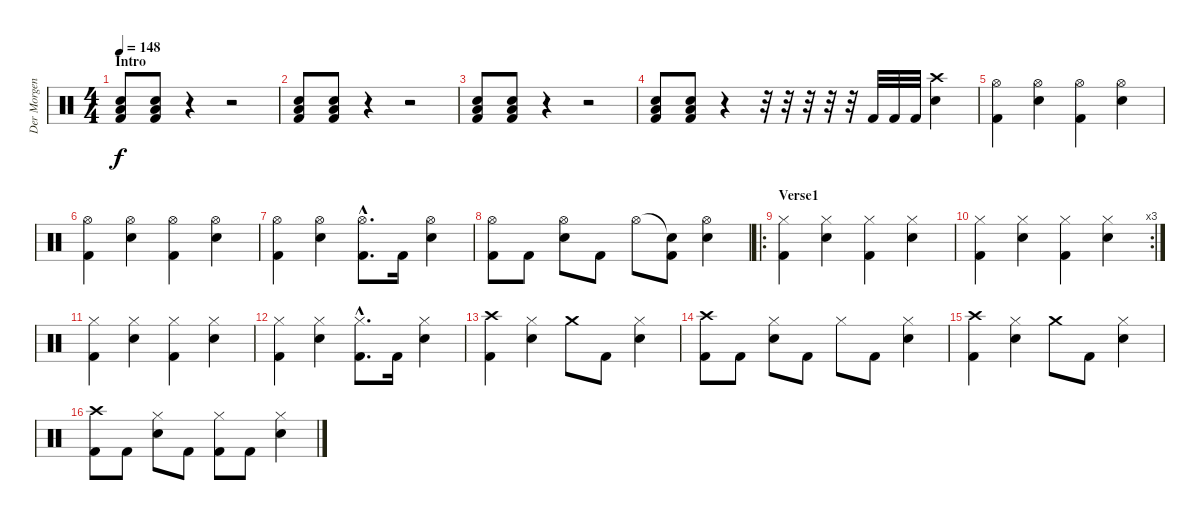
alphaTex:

\track ("Der Morgenstern" "Der Morgen") {instrument percussion}
\staff {score}
\articulation defaults
\ts (4 4)
\section ("" "Intro")
\tempo 148
\clef neutral
\ks c
("Snare (hit) 2" "Low Tom (hit)" "Kick (hit) 2").8{dy f} ("Snare (hit) 2" "Low Tom (hit)" "Kick (hit) 2").8 r.4 r.2 |
("Snare (hit) 2" "Low Tom (hit)" "Kick (hit) 2").8 ("Snare (hit) 2" "Low Tom (hit)" "Kick (hit) 2").8 r.4 r.2 |
("Snare (hit) 2" "Low Tom (hit)" "Kick (hit) 2").8 ("Snare (hit) 2" "Low Tom (hit)" "Kick (hit) 2").8 r.4 r.2 |
("Snare (hit) 2" "Low Tom (hit)" "Kick (hit) 2").8 ("Snare (hit) 2" "Low Tom (hit)" "Kick (hit) 2").8 r.4 r.32 r.32 r.32 r.32 r.32 "Kick (hit) 2".32 "Kick (hit) 2".32 "Kick (hit) 2".32 ("Crash high (hit)" "Snare (hit) 2").4 |
("Hi-Hat (open)" "Kick (hit) 2").4 ("Snare (hit) 2" "Hi-Hat (open)").4 ("Hi-Hat (open)" "Kick (hit) 2").4 ("Hi-Hat (open)" "Snare (hit) 2").4 |
("Hi-Hat (open)" "Kick (hit) 2").4 ("Snare (hit) 2" "Hi-Hat (open)").4 ("Hi-Hat (open)" "Kick (hit) 2").4 ("Hi-Hat (open)" "Snare (hit) 2").4 |
("Hi-Hat (open)" "Kick (hit) 2").4 ("Snare (hit) 2" "Hi-Hat (open)").4 ("Hi-Hat (open)"{hac} "Kick (hit) 2"{hac}).8{d} "Kick (hit) 2".16 ("Hi-Hat (open)" "Snare (hit) 2").4 |
("Hi-Hat (open)" "Kick (hit) 2").8 "Kick (hit) 2".8 ("Hi-Hat (open)" "Snare (hit) 2").8 "Kick (hit) 2".8 "Hi-Hat (open)".8 ("Snare (hit)"{t} "Kick (hit) 2").8 ("Hi-Hat (open)" "Snare (hit) 2").4 |
\ro
\section ("" "Verse1")
("Hi-Hat (closed)" "Kick (hit) 2").4 ("Hi-Hat (closed)" "Snare (hit) 2").4 ("Hi-Hat (closed)" "Kick (hit) 2").4 ("Hi-Hat (closed)" "Snare (hit) 2").4 |
\rc 3
("Hi-Hat (closed)" "Kick (hit) 2").4 ("Hi-Hat (closed)" "Snare (hit) 2").4 ("Hi-Hat (closed)" "Kick (hit) 2").4 ("Hi-Hat (closed)" "Snare (hit) 2").4 |
("Hi-Hat (closed)" "Kick (hit) 2").4 ("Hi-Hat (closed)" "Snare (hit) 2").4 ("Hi-Hat (closed)" "Kick (hit) 2").4 ("Hi-Hat (closed)" "Snare (hit) 2").4 |
("Hi-Hat (closed)" "Kick (hit) 2").4 ("Snare (hit) 2" "Hi-Hat (closed)").4 ("Hi-Hat (closed)"{hac} "Kick (hit) 2"{hac}).8{d} "Kick (hit) 2".16 ("Hi-Hat (closed)" "Snare (hit) 2").4 |
("Crash high (hit)" "Kick (hit) 2").4 ("Snare (hit) 2" "Hi-Hat (closed)").4 "Crash medium (hit)".8 "Kick (hit) 2".8 ("Hi-Hat (closed)" "Snare (hit) 2").4 |
("Crash high (hit)" "Kick (hit) 2").8 "Kick (hit) 2".8 ("Hi-Hat (closed)" "Snare (hit) 2").8 "Kick (hit) 2".8 "Hi-Hat (closed)".8 "Kick (hit) 2".8 ("Hi-Hat (closed)" "Snare (hit) 2").4 |
("Crash high (hit)" "Kick (hit) 2").4 ("Snare (hit) 2" "Hi-Hat (closed)").4 "Crash medium (hit)".8 "Kick (hit) 2".8 ("Hi-Hat (closed)" "Snare (hit) 2").4 |
("Crash high (hit)" "Kick (hit) 2").8 "Kick (hit) 2".8 ("Hi-Hat (closed)" "Snare (hit) 2").8 "Kick (hit) 2".8 ("Hi-Hat (closed)" "Kick (hit) 2").8 "Kick (hit) 2".8 ("Hi-Hat (closed)" "Snare (hit) 2").4
